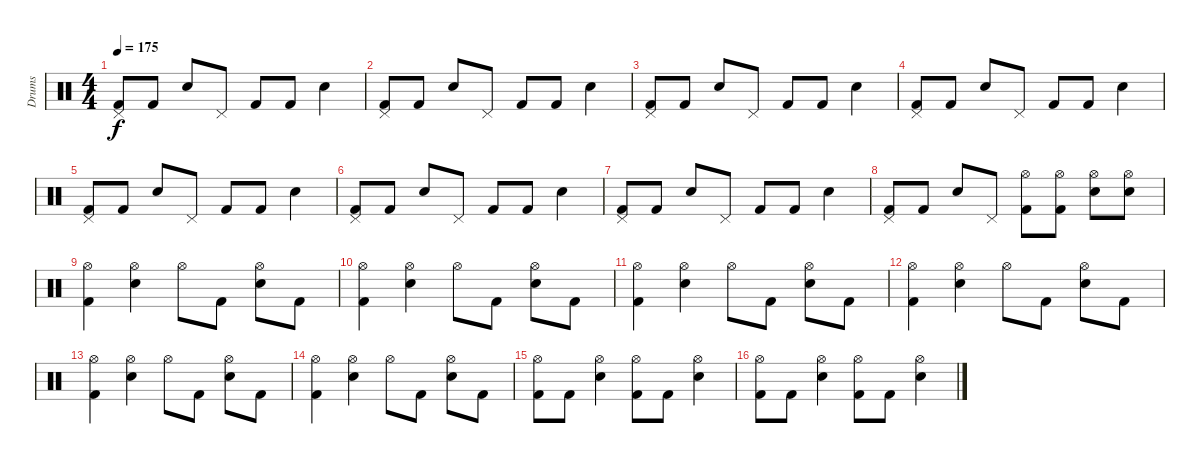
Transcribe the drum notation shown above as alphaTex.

\track ("Drums" "Drums") {instrument percussion}
\staff {score}
\articulation defaults
\ts (4 4)
\tempo 175
\clef neutral
\ks c
("Pedal Hi-Hat (hit)" "Kick (hit) 2").8{dy f} "Kick (hit) 2".8 "Snare (hit) 2".8 "Pedal Hi-Hat (hit)".8 "Kick (hit) 2".8 "Kick (hit) 2".8 "Snare (hit) 2".4 |
("Pedal Hi-Hat (hit)" "Kick (hit) 2").8 "Kick (hit) 2".8 "Snare (hit) 2".8 "Pedal Hi-Hat (hit)".8 "Kick (hit) 2".8 "Kick (hit) 2".8 "Snare (hit) 2".4 |
("Pedal Hi-Hat (hit)" "Kick (hit) 2").8 "Kick (hit) 2".8 "Snare (hit) 2".8 "Pedal Hi-Hat (hit)".8 "Kick (hit) 2".8 "Kick (hit) 2".8 "Snare (hit) 2".4 |
("Pedal Hi-Hat (hit)" "Kick (hit) 2").8 "Kick (hit) 2".8 "Snare (hit) 2".8 "Pedal Hi-Hat (hit)".8 "Kick (hit) 2".8 "Kick (hit) 2".8 "Snare (hit) 2".4 |
("Pedal Hi-Hat (hit)" "Kick (hit) 2").8 "Kick (hit) 2".8 "Snare (hit) 2".8 "Pedal Hi-Hat (hit)".8 "Kick (hit) 2".8 "Kick (hit) 2".8 "Snare (hit) 2".4 |
("Pedal Hi-Hat (hit)" "Kick (hit) 2").8 "Kick (hit) 2".8 "Snare (hit) 2".8 "Pedal Hi-Hat (hit)".8 "Kick (hit) 2".8 "Kick (hit) 2".8 "Snare (hit) 2".4 |
("Pedal Hi-Hat (hit)" "Kick (hit) 2").8 "Kick (hit) 2".8 "Snare (hit) 2".8 "Pedal Hi-Hat (hit)".8 "Kick (hit) 2".8 "Kick (hit) 2".8 "Snare (hit) 2".4 |
("Pedal Hi-Hat (hit)" "Kick (hit) 2").8 "Kick (hit) 2".8 "Snare (hit) 2".8 "Pedal Hi-Hat (hit)".8 ("Hi-Hat (open)" "Kick (hit) 2").8 ("Hi-Hat (open)" "Kick (hit) 2").8 ("Hi-Hat (open)" "Snare (hit) 2").8 ("Hi-Hat (open)" "Snare (hit) 2").8 |
("Hi-Hat (open)" "Kick (hit) 2").4 ("Hi-Hat (open)" "Snare (hit) 2").4 "Hi-Hat (open)".8 "Kick (hit) 2".8 ("Hi-Hat (open)" "Snare (hit) 2").8 "Kick (hit) 2".8 |
("Hi-Hat (open)" "Kick (hit) 2").4 ("Hi-Hat (open)" "Snare (hit) 2").4 "Hi-Hat (open)".8 "Kick (hit) 2".8 ("Hi-Hat (open)" "Snare (hit) 2").8 "Kick (hit) 2".8 |
("Hi-Hat (open)" "Kick (hit) 2").4 ("Hi-Hat (open)" "Snare (hit) 2").4 "Hi-Hat (open)".8 "Kick (hit) 2".8 ("Hi-Hat (open)" "Snare (hit) 2").8 "Kick (hit) 2".8 |
("Hi-Hat (open)" "Kick (hit) 2").4 ("Hi-Hat (open)" "Snare (hit) 2").4 "Hi-Hat (open)".8 "Kick (hit) 2".8 ("Hi-Hat (open)" "Snare (hit) 2").8 "Kick (hit) 2".8 |
("Hi-Hat (open)" "Kick (hit) 2").4 ("Hi-Hat (open)" "Snare (hit) 2").4 "Hi-Hat (open)".8 "Kick (hit) 2".8 ("Hi-Hat (open)" "Snare (hit) 2").8 "Kick (hit) 2".8 |
("Hi-Hat (open)" "Kick (hit) 2").4 ("Hi-Hat (open)" "Snare (hit) 2").4 "Hi-Hat (open)".8 "Kick (hit) 2".8 ("Hi-Hat (open)" "Snare (hit) 2").8 "Kick (hit) 2".8 |
("Hi-Hat (open)" "Kick (hit) 2").8 "Kick (hit) 2".8 ("Hi-Hat (open)" "Snare (hit) 2").4 ("Hi-Hat (open)" "Kick (hit) 2").8 "Kick (hit) 2".8 ("Hi-Hat (open)" "Snare (hit) 2").4 |
("Hi-Hat (open)" "Kick (hit) 2").8 "Kick (hit) 2".8 ("Hi-Hat (open)" "Snare (hit) 2").4 ("Hi-Hat (open)" "Kick (hit) 2").8 "Kick (hit) 2".8 ("Hi-Hat (open)" "Snare (hit) 2").4
